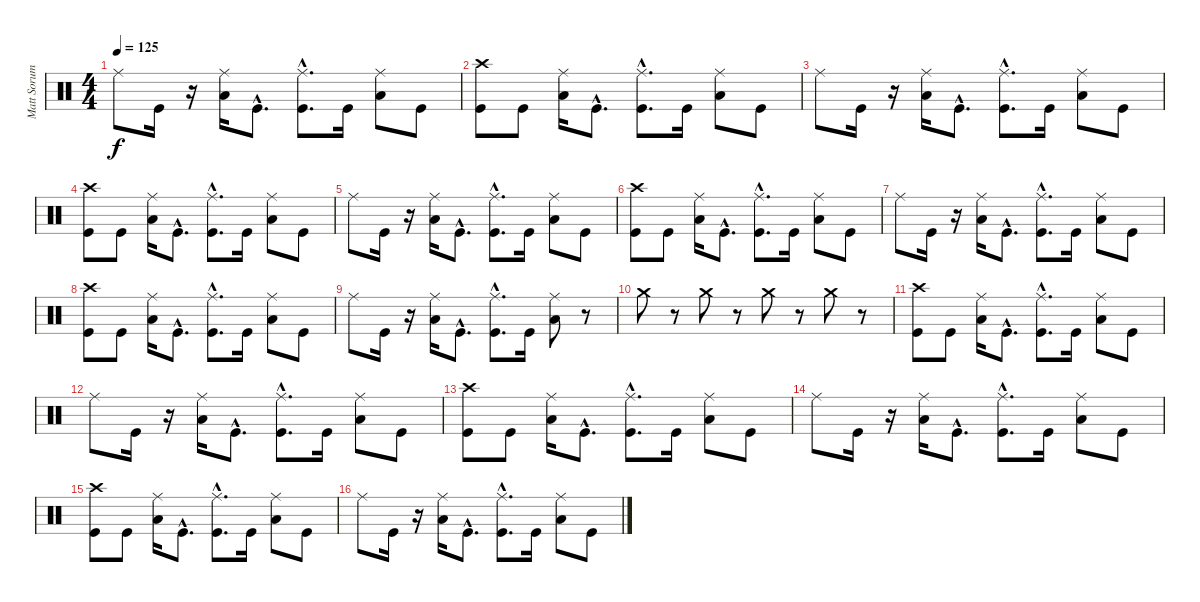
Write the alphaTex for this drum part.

\track ("Matt Sorum" "Matt Sorum") {instrument percussion}
\staff {score}
\articulation defaults
\ts (4 4)
\tempo 125
\clef neutral
\ks c "Ride (middle)".8{dy f} "Kick (hit)".16
r.16 ("Low Tom (hit)" "Ride (middle)").16 "Kick (hit)"{hac}.8{d} ("Ride (middle)" "Kick (hit)"{hac}).8{d} "Kick (hit)".16 ("Low Tom (hit)" "Ride (middle)").8 "Kick (hit)".8 |
("Crash high (hit)" "Kick (hit)").8 "Kick (hit)".8 ("Low Tom (hit)" "Ride (middle)").16 "Kick (hit)"{hac}.8{d} ("Ride (middle)" "Kick (hit)"{hac}).8{d} "Kick (hit)".16 ("Low Tom (hit)" "Ride (middle)").8 "Kick (hit)".8 |
"Ride (middle)".8 "Kick (hit)".16 r.16 ("Low Tom (hit)" "Ride (middle)").16 "Kick (hit)"{hac}.8{d} ("Ride (middle)" "Kick (hit)"{hac}).8{d} "Kick (hit)".16 ("Low Tom (hit)" "Ride (middle)").8 "Kick (hit)".8 |
("Crash high (hit)" "Kick (hit)").8 "Kick (hit)".8 ("Low Tom (hit)" "Ride (middle)").16 "Kick (hit)"{hac}.8{d} ("Ride (middle)" "Kick (hit)"{hac}).8{d} "Kick (hit)".16 ("Low Tom (hit)" "Ride (middle)").8 "Kick (hit)".8 |
"Ride (middle)".8 "Kick (hit)".16 r.16 ("Low Tom (hit)" "Ride (middle)").16 "Kick (hit)"{hac}.8{d} ("Ride (middle)" "Kick (hit)"{hac}).8{d} "Kick (hit)".16 ("Low Tom (hit)" "Ride (middle)").8 "Kick (hit)".8 |
("Crash high (hit)" "Kick (hit)").8 "Kick (hit)".8 ("Low Tom (hit)" "Ride (middle)").16 "Kick (hit)"{hac}.8{d} ("Ride (middle)" "Kick (hit)"{hac}).8{d} "Kick (hit)".16 ("Low Tom (hit)" "Ride (middle)").8 "Kick (hit)".8 |
"Ride (middle)".8 "Kick (hit)".16 r.16 ("Low Tom (hit)" "Ride (middle)").16 "Kick (hit)"{hac}.8{d} ("Ride (middle)" "Kick (hit)"{hac}).8{d} "Kick (hit)".16 ("Low Tom (hit)" "Ride (middle)").8 "Kick (hit)".8 |
("Crash high (hit)" "Kick (hit)").8 "Kick (hit)".8 ("Low Tom (hit)" "Ride (middle)").16 "Kick (hit)"{hac}.8{d} ("Ride (middle)" "Kick (hit)"{hac}).8{d} "Kick (hit)".16 ("Low Tom (hit)" "Ride (middle)").8 "Kick (hit)".8 |
"Ride (middle)".8 "Kick (hit)".16 r.16 ("Low Tom (hit)" "Ride (middle)").16 "Kick (hit)"{hac}.8{d} ("Ride (middle)" "Kick (hit)"{hac}).8{d} "Kick (hit)".16 ("Low Tom (hit)" "Ride (middle)").8 r.8 |
"Crash medium (hit)".8 r.8 "Crash medium (hit)".8 r.8 "Crash medium (hit)".8 r.8 "Crash medium (hit)".8 r.8 |
("Crash high (hit)" "Kick (hit)").8 "Kick (hit)".8 ("Low Tom (hit)" "Ride (middle)").16 "Kick (hit)"{hac}.8{d} ("Ride (middle)" "Kick (hit)"{hac}).8{d} "Kick (hit)".16 ("Low Tom (hit)" "Ride (middle)").8 "Kick (hit)".8 |
"Ride (middle)".8 "Kick (hit)".16 r.16 ("Low Tom (hit)" "Ride (middle)").16 "Kick (hit)"{hac}.8{d} ("Ride (middle)" "Kick (hit)"{hac}).8{d} "Kick (hit)".16 ("Low Tom (hit)" "Ride (middle)").8 "Kick (hit)".8 |
("Crash high (hit)" "Kick (hit)").8 "Kick (hit)".8 ("Low Tom (hit)" "Ride (middle)").16 "Kick (hit)"{hac}.8{d} ("Ride (middle)" "Kick (hit)"{hac}).8{d} "Kick (hit)".16 ("Low Tom (hit)" "Ride (middle)").8 "Kick (hit)".8 |
"Ride (middle)".8 "Kick (hit)".16 r.16 ("Low Tom (hit)" "Ride (middle)").16 "Kick (hit)"{hac}.8{d} ("Ride (middle)" "Kick (hit)"{hac}).8{d} "Kick (hit)".16 ("Low Tom (hit)" "Ride (middle)").8 "Kick (hit)".8 |
("Crash high (hit)" "Kick (hit)").8 "Kick (hit)".8 ("Low Tom (hit)" "Ride (middle)").16 "Kick (hit)"{hac}.8{d} ("Ride (middle)" "Kick (hit)"{hac}).8{d} "Kick (hit)".16 ("Low Tom (hit)" "Ride (middle)").8 "Kick (hit)".8 |
"Ride (middle)".8 "Kick (hit)".16 r.16 ("Low Tom (hit)" "Ride (middle)").16 "Kick (hit)"{hac}.8{d} ("Ride (middle)" "Kick (hit)"{hac}).8{d} "Kick (hit)".16 ("Low Tom (hit)" "Ride (middle)").8 "Kick (hit)".8
